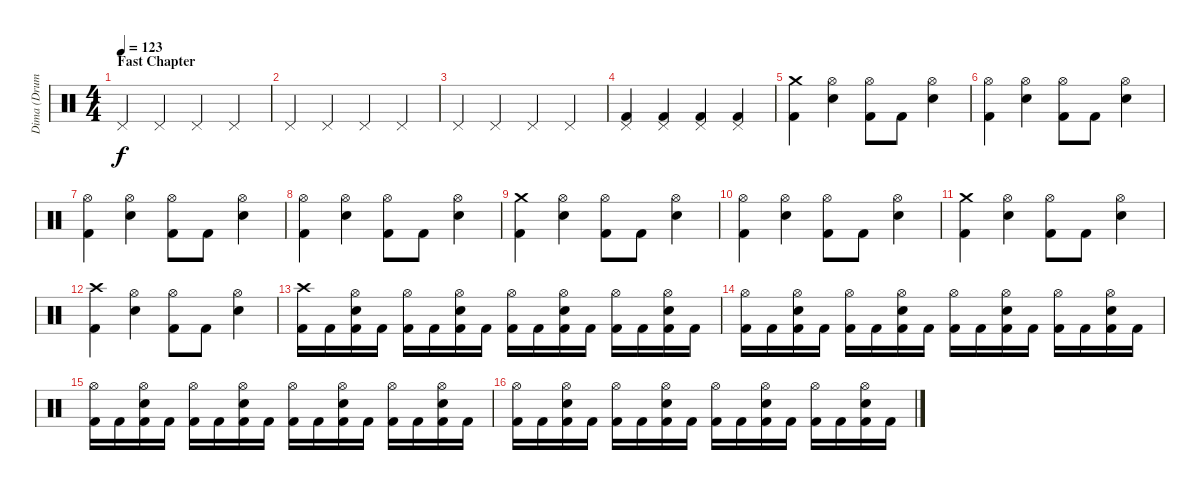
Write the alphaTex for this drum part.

\track ("Dima (Drums)" "Dima (Drum") {instrument percussion}
\staff {score}
\articulation defaults
\ts (4 4)
\section ("" "Fast Chapter")
\tempo 123
\clef neutral
\ks c "Pedal Hi-Hat (hit)".4{dy f} "Pedal Hi-Hat (hit)".4 "Pedal Hi-Hat (hit)".4 "Pedal Hi-Hat (hit)".4
|
"Pedal Hi-Hat (hit)".4 "Pedal Hi-Hat (hit)".4 "Pedal Hi-Hat (hit)".4 "Pedal Hi-Hat (hit)".4 |
"Pedal Hi-Hat (hit)".4 "Pedal Hi-Hat (hit)".4 "Pedal Hi-Hat (hit)".4 "Pedal Hi-Hat (hit)".4 |
("Kick (hit) 2" "Pedal Hi-Hat (hit)").4 ("Kick (hit) 2" "Pedal Hi-Hat (hit)").4 ("Kick (hit) 2" "Pedal Hi-Hat (hit)").4 ("Kick (hit) 2" "Pedal Hi-Hat (hit)").4 |
("Crash medium (hit)" "Kick (hit) 2").4 ("Hi-Hat (open)" "Snare (hit) 2").4 ("Hi-Hat (open)" "Kick (hit) 2").8 "Kick (hit) 2".8 ("Hi-Hat (open)" "Snare (hit) 2").4 |
("Hi-Hat (open)" "Kick (hit) 2").4 ("Hi-Hat (open)" "Snare (hit) 2").4 ("Hi-Hat (open)" "Kick (hit) 2").8 "Kick (hit) 2".8 ("Hi-Hat (open)" "Snare (hit) 2").4 |
("Hi-Hat (open)" "Kick (hit) 2").4 ("Hi-Hat (open)" "Snare (hit) 2").4 ("Hi-Hat (open)" "Kick (hit) 2").8 "Kick (hit) 2".8 ("Hi-Hat (open)" "Snare (hit) 2").4 |
("Hi-Hat (open)" "Kick (hit) 2").4 ("Hi-Hat (open)" "Snare (hit) 2").4 ("Hi-Hat (open)" "Kick (hit) 2").8 "Kick (hit) 2".8 ("Hi-Hat (open)" "Snare (hit) 2").4 |
("Crash medium (hit)" "Kick (hit) 2").4 ("Hi-Hat (open)" "Snare (hit) 2").4 ("Hi-Hat (open)" "Kick (hit) 2").8 "Kick (hit) 2".8 ("Hi-Hat (open)" "Snare (hit) 2").4 |
("Hi-Hat (open)" "Kick (hit) 2").4 ("Hi-Hat (open)" "Snare (hit) 2").4 ("Hi-Hat (open)" "Kick (hit) 2").8 "Kick (hit) 2".8 ("Hi-Hat (open)" "Snare (hit) 2").4 |
("Crash medium (hit)" "Kick (hit) 2").4 ("Hi-Hat (open)" "Snare (hit) 2").4 ("Hi-Hat (open)" "Kick (hit) 2").8 "Kick (hit) 2".8 ("Hi-Hat (open)" "Snare (hit) 2").4 |
("Crash high (hit)" "Kick (hit) 2").4 ("Hi-Hat (open)" "Snare (hit) 2").4 ("Hi-Hat (open)" "Kick (hit) 2").8 "Kick (hit) 2".8 ("Hi-Hat (open)" "Snare (hit) 2").4 |
("Crash high (hit)" "Kick (hit) 2").16 "Kick (hit) 2".16 ("Hi-Hat (open)" "Snare (hit) 2" "Kick (hit) 2").16 "Kick (hit) 2".16 ("Hi-Hat (open)" "Kick (hit) 2").16 "Kick (hit) 2".16 ("Hi-Hat (open)" "Snare (hit) 2" "Kick (hit) 2").16 "Kick (hit) 2".16 ("Hi-Hat (open)" "Kick (hit) 2").16 "Kick (hit) 2".16 ("Hi-Hat (open)" "Snare (hit) 2" "Kick (hit) 2").16 "Kick (hit) 2".16 ("Hi-Hat (open)" "Kick (hit) 2").16 "Kick (hit) 2".16 ("Hi-Hat (open)" "Snare (hit) 2" "Kick (hit) 2").16 "Kick (hit) 2".16 |
("Hi-Hat (open)" "Kick (hit) 2").16 "Kick (hit) 2".16 ("Hi-Hat (open)" "Snare (hit) 2" "Kick (hit) 2").16 "Kick (hit) 2".16 ("Hi-Hat (open)" "Kick (hit) 2").16 "Kick (hit) 2".16 ("Hi-Hat (open)" "Snare (hit) 2" "Kick (hit) 2").16 "Kick (hit) 2".16 ("Hi-Hat (open)" "Kick (hit) 2").16 "Kick (hit) 2".16 ("Hi-Hat (open)" "Snare (hit) 2" "Kick (hit) 2").16 "Kick (hit) 2".16 ("Hi-Hat (open)" "Kick (hit) 2").16 "Kick (hit) 2".16 ("Hi-Hat (open)" "Snare (hit) 2" "Kick (hit) 2").16 "Kick (hit) 2".16 |
("Hi-Hat (open)" "Kick (hit) 2").16 "Kick (hit) 2".16 ("Hi-Hat (open)" "Snare (hit) 2" "Kick (hit) 2").16 "Kick (hit) 2".16 ("Hi-Hat (open)" "Kick (hit) 2").16 "Kick (hit) 2".16 ("Hi-Hat (open)" "Snare (hit) 2" "Kick (hit) 2").16 "Kick (hit) 2".16 ("Hi-Hat (open)" "Kick (hit) 2").16 "Kick (hit) 2".16 ("Hi-Hat (open)" "Snare (hit) 2" "Kick (hit) 2").16 "Kick (hit) 2".16 ("Hi-Hat (open)" "Kick (hit) 2").16 "Kick (hit) 2".16 ("Hi-Hat (open)" "Snare (hit) 2" "Kick (hit) 2").16 "Kick (hit) 2".16 |
("Hi-Hat (open)" "Kick (hit) 2").16 "Kick (hit) 2".16 ("Hi-Hat (open)" "Snare (hit) 2" "Kick (hit) 2").16 "Kick (hit) 2".16 ("Hi-Hat (open)" "Kick (hit) 2").16 "Kick (hit) 2".16 ("Hi-Hat (open)" "Snare (hit) 2" "Kick (hit) 2").16 "Kick (hit) 2".16 ("Hi-Hat (open)" "Kick (hit) 2").16 "Kick (hit) 2".16 ("Hi-Hat (open)" "Snare (hit) 2" "Kick (hit) 2").16 "Kick (hit) 2".16 ("Hi-Hat (open)" "Kick (hit) 2").16 "Kick (hit) 2".16 ("Hi-Hat (open)" "Snare (hit) 2" "Kick (hit) 2").16 "Kick (hit) 2".16
